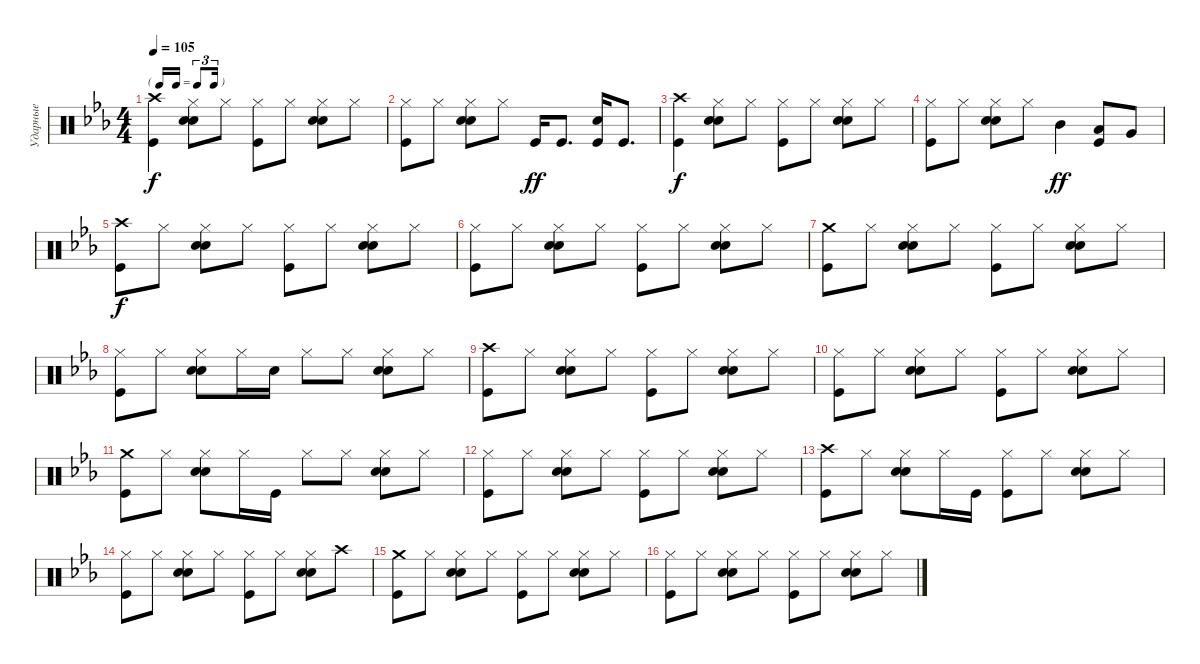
\track ("Ударные" "Ударные") {instrument percussion}
\staff {score}
\articulation defaults
\ts (4 4)
\tf triplet16th
\tempo 105
\clef neutral
\ks cminor
("Kick (hit)" "Crash high (hit)").4{dy f} ("Snare (hit) 2" "Hi-Hat (closed)" "Hand Clap (hit)").8 "Hi-Hat (closed)".8 ("Kick (hit)" "Hi-Hat (closed)").8 "Hi-Hat (closed)".8 ("Snare (hit) 2" "Hi-Hat (closed)" "Hand Clap (hit)").8 "Hi-Hat (closed)".8 |
("Kick (hit)" "Hi-Hat (closed)").8 "Hi-Hat (closed)".8 ("Snare (hit) 2" "Hi-Hat (closed)" "Hand Clap (hit)").8 "Hi-Hat (closed)".8 "Kick (hit)".16{dy ff} "Kick (hit)".8{d} ("Kick (hit)" "Hand Clap (hit)").16 "Kick (hit)".8{d} |
("Kick (hit)" "Crash high (hit)").4{dy f} ("Snare (hit) 2" "Hi-Hat (closed)" "Hand Clap (hit)").8 "Hi-Hat (closed)".8 ("Kick (hit)" "Hi-Hat (closed)").8 "Hi-Hat (closed)".8 ("Snare (hit) 2" "Hi-Hat (closed)" "Hand Clap (hit)").8 "Hi-Hat (closed)".8 |
("Kick (hit)" "Hi-Hat (closed)").8 "Hi-Hat (closed)".8 ("Snare (hit) 2" "Hi-Hat (closed)" "Hand Clap (hit)").8 "Hi-Hat (closed)".8 "Mid Tom (hit)".4{dy ff} ("Low Tom (hit)" "Kick (hit)").8 "Very Low Tom (hit)".8 |
("Kick (hit)" "Crash high (hit)").8{dy f} "Hi-Hat (closed)".8 ("Snare (hit) 2" "Hi-Hat (closed)" "Hand Clap (hit)").8 "Hi-Hat (closed)".8 ("Kick (hit)" "Hi-Hat (closed)").8 "Hi-Hat (closed)".8 ("Snare (hit) 2" "Hi-Hat (closed)" "Hand Clap (hit)").8 "Hi-Hat (closed)".8 |
("Kick (hit)" "Hi-Hat (closed)").8 "Hi-Hat (closed)".8 ("Snare (hit) 2" "Hi-Hat (closed)" "Hand Clap (hit)").8 "Hi-Hat (closed)".8 ("Kick (hit)" "Hi-Hat (closed)").8 "Hi-Hat (closed)".8 ("Snare (hit) 2" "Hi-Hat (closed)" "Hand Clap (hit)").8 "Hi-Hat (closed)".8 |
("Kick (hit)" "Crash medium (hit)").8 "Hi-Hat (closed)".8 ("Snare (hit) 2" "Hi-Hat (closed)" "Hand Clap (hit)").8 "Hi-Hat (closed)".8 ("Kick (hit)" "Hi-Hat (closed)").8 "Hi-Hat (closed)".8 ("Snare (hit) 2" "Hi-Hat (closed)" "Hand Clap (hit)").8 "Hi-Hat (closed)".8 |
("Kick (hit)" "Hi-Hat (closed)").8 "Hi-Hat (closed)".8 ("Snare (hit) 2" "Hi-Hat (closed)" "Hand Clap (hit)").8 "Hi-Hat (closed)".16 "Snare (hit) 2".16 "Hi-Hat (closed)".8 "Hi-Hat (closed)".8 ("Snare (hit) 2" "Hi-Hat (closed)" "Hand Clap (hit)").8 "Hi-Hat (closed)".8 |
("Kick (hit)" "Crash high (hit)").8 "Hi-Hat (closed)".8 ("Snare (hit) 2" "Hi-Hat (closed)" "Hand Clap (hit)").8 "Hi-Hat (closed)".8 ("Kick (hit)" "Hi-Hat (closed)").8 "Hi-Hat (closed)".8 ("Snare (hit) 2" "Hi-Hat (closed)" "Hand Clap (hit)").8 "Hi-Hat (closed)".8 |
("Kick (hit)" "Hi-Hat (closed)").8 "Hi-Hat (closed)".8 ("Snare (hit) 2" "Hi-Hat (closed)" "Hand Clap (hit)").8 "Hi-Hat (closed)".8 ("Kick (hit)" "Hi-Hat (closed)").8 "Hi-Hat (closed)".8 ("Snare (hit) 2" "Hi-Hat (closed)" "Hand Clap (hit)").8 "Hi-Hat (closed)".8 |
("Kick (hit)" "Crash medium (hit)").8 "Hi-Hat (closed)".8 ("Snare (hit) 2" "Hi-Hat (closed)" "Hand Clap (hit)").8 "Hi-Hat (closed)".16 "Kick (hit)".16 "Hi-Hat (closed)".8 "Hi-Hat (closed)".8 ("Snare (hit) 2" "Hi-Hat (closed)" "Hand Clap (hit)").8 "Hi-Hat (closed)".8 |
("Kick (hit)" "Hi-Hat (closed)").8 "Hi-Hat (closed)".8 ("Snare (hit) 2" "Hi-Hat (closed)" "Hand Clap (hit)").8 "Hi-Hat (closed)".8 ("Kick (hit)" "Hi-Hat (closed)").8 "Hi-Hat (closed)".8 ("Snare (hit) 2" "Hi-Hat (closed)" "Hand Clap (hit)").8 "Hi-Hat (closed)".8 |
("Kick (hit)" "Crash high (hit)").8 "Hi-Hat (closed)".8 ("Snare (hit) 2" "Hi-Hat (closed)" "Hand Clap (hit)").8 "Hi-Hat (closed)".16 "Kick (hit)".16 ("Hi-Hat (closed)" "Kick (hit)").8 "Hi-Hat (closed)".8 ("Snare (hit) 2" "Hi-Hat (closed)" "Hand Clap (hit)").8 "Hi-Hat (closed)".8 |
("Kick (hit)" "Hi-Hat (closed)").8 "Hi-Hat (closed)".8 ("Snare (hit) 2" "Hi-Hat (closed)" "Hand Clap (hit)").8 "Hi-Hat (closed)".8 ("Kick (hit)" "Hi-Hat (closed)").8 "Hi-Hat (closed)".8 ("Snare (hit) 2" "Hi-Hat (closed)" "Hand Clap (hit)").8 "Crash high (hit)".8 |
("Kick (hit)" "Crash medium (hit)").8 "Hi-Hat (closed)".8 ("Snare (hit) 2" "Hi-Hat (closed)" "Hand Clap (hit)").8 "Hi-Hat (closed)".8 ("Hi-Hat (closed)" "Kick (hit)").8 "Hi-Hat (closed)".8 ("Snare (hit) 2" "Hi-Hat (closed)" "Hand Clap (hit)").8 "Hi-Hat (closed)".8 |
("Kick (hit)" "Hi-Hat (closed)").8 "Hi-Hat (closed)".8 ("Snare (hit) 2" "Hi-Hat (closed)" "Hand Clap (hit)").8 "Hi-Hat (closed)".8 ("Kick (hit)" "Hi-Hat (closed)").8 "Hi-Hat (closed)".8 ("Snare (hit) 2" "Hi-Hat (closed)" "Hand Clap (hit)").8 "Hi-Hat (closed)".8
